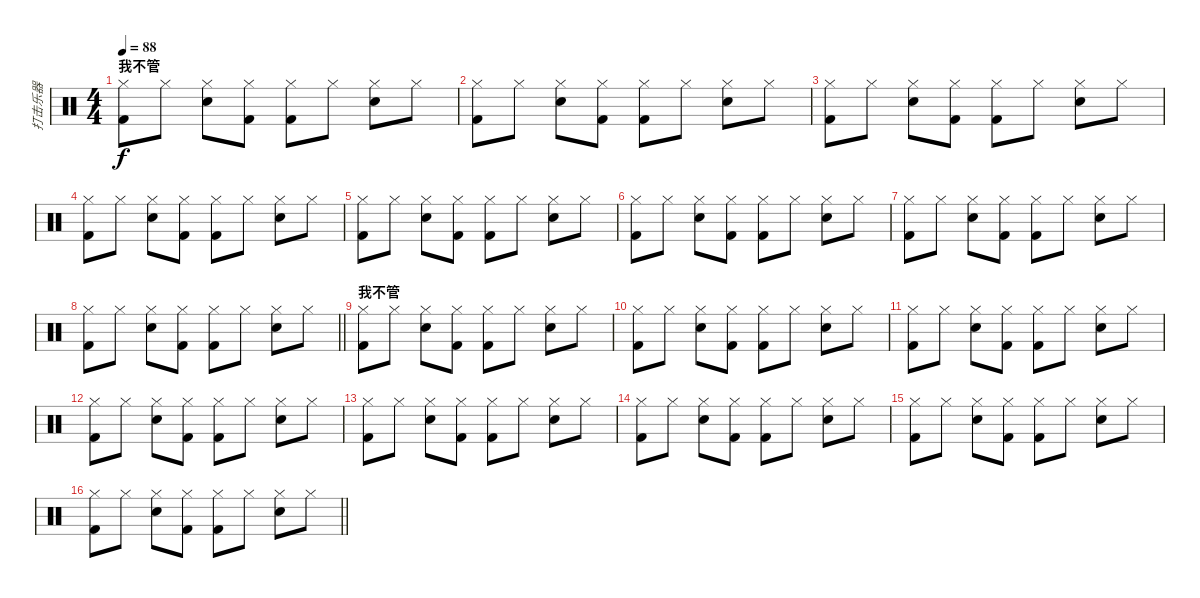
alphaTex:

\track ("打击乐器" "打击乐器") {instrument percussion}
\staff {score}
\articulation defaults
\ts (4 4)
\section ("" "我不管")
\tempo 88
\clef neutral
\ks c
("Hi-Hat (closed)" "Kick (hit) 2").8{dy f} "Hi-Hat (closed)".8 ("Hi-Hat (closed)" "Electric Snare (hit)").8 ("Hi-Hat (closed)" "Kick (hit) 2").8 ("Hi-Hat (closed)" "Kick (hit) 2").8 "Hi-Hat (closed)".8 ("Hi-Hat (closed)" "Electric Snare (hit)").8 "Hi-Hat (closed)".8 |
("Hi-Hat (closed)" "Kick (hit) 2").8 "Hi-Hat (closed)".8 ("Hi-Hat (closed)" "Electric Snare (hit)").8 ("Hi-Hat (closed)" "Kick (hit) 2").8 ("Hi-Hat (closed)" "Kick (hit) 2").8 "Hi-Hat (closed)".8 ("Hi-Hat (closed)" "Electric Snare (hit)").8 "Hi-Hat (closed)".8 |
("Hi-Hat (closed)" "Kick (hit) 2").8 "Hi-Hat (closed)".8 ("Hi-Hat (closed)" "Electric Snare (hit)").8 ("Hi-Hat (closed)" "Kick (hit) 2").8 ("Hi-Hat (closed)" "Kick (hit) 2").8 "Hi-Hat (closed)".8 ("Hi-Hat (closed)" "Electric Snare (hit)").8 "Hi-Hat (closed)".8 |
("Hi-Hat (closed)" "Kick (hit) 2").8 "Hi-Hat (closed)".8 ("Hi-Hat (closed)" "Electric Snare (hit)").8 ("Hi-Hat (closed)" "Kick (hit) 2").8 ("Hi-Hat (closed)" "Kick (hit) 2").8 "Hi-Hat (closed)".8 ("Hi-Hat (closed)" "Electric Snare (hit)").8 "Hi-Hat (closed)".8 |
("Hi-Hat (closed)" "Kick (hit) 2").8 "Hi-Hat (closed)".8 ("Hi-Hat (closed)" "Electric Snare (hit)").8 ("Hi-Hat (closed)" "Kick (hit) 2").8 ("Hi-Hat (closed)" "Kick (hit) 2").8 "Hi-Hat (closed)".8 ("Hi-Hat (closed)" "Electric Snare (hit)").8 "Hi-Hat (closed)".8 |
("Hi-Hat (closed)" "Kick (hit) 2").8 "Hi-Hat (closed)".8 ("Hi-Hat (closed)" "Electric Snare (hit)").8 ("Hi-Hat (closed)" "Kick (hit) 2").8 ("Hi-Hat (closed)" "Kick (hit) 2").8 "Hi-Hat (closed)".8 ("Hi-Hat (closed)" "Electric Snare (hit)").8 "Hi-Hat (closed)".8 |
("Hi-Hat (closed)" "Kick (hit) 2").8 "Hi-Hat (closed)".8 ("Hi-Hat (closed)" "Electric Snare (hit)").8 ("Hi-Hat (closed)" "Kick (hit) 2").8 ("Hi-Hat (closed)" "Kick (hit) 2").8 "Hi-Hat (closed)".8 ("Hi-Hat (closed)" "Electric Snare (hit)").8 "Hi-Hat (closed)".8 |
\barLineRight lightlight
("Hi-Hat (closed)" "Kick (hit) 2").8 "Hi-Hat (closed)".8 ("Hi-Hat (closed)" "Electric Snare (hit)").8 ("Hi-Hat (closed)" "Kick (hit) 2").8 ("Hi-Hat (closed)" "Kick (hit) 2").8 "Hi-Hat (closed)".8 ("Hi-Hat (closed)" "Electric Snare (hit)").8 "Hi-Hat (closed)".8 |
\section ("" "我不管")
("Hi-Hat (closed)" "Kick (hit) 2").8 "Hi-Hat (closed)".8 ("Hi-Hat (closed)" "Electric Snare (hit)").8 ("Hi-Hat (closed)" "Kick (hit) 2").8 ("Hi-Hat (closed)" "Kick (hit) 2").8 "Hi-Hat (closed)".8 ("Hi-Hat (closed)" "Electric Snare (hit)").8 "Hi-Hat (closed)".8 |
("Hi-Hat (closed)" "Kick (hit) 2").8 "Hi-Hat (closed)".8 ("Hi-Hat (closed)" "Electric Snare (hit)").8 ("Hi-Hat (closed)" "Kick (hit) 2").8 ("Hi-Hat (closed)" "Kick (hit) 2").8 "Hi-Hat (closed)".8 ("Hi-Hat (closed)" "Electric Snare (hit)").8 "Hi-Hat (closed)".8 |
("Hi-Hat (closed)" "Kick (hit) 2").8 "Hi-Hat (closed)".8 ("Hi-Hat (closed)" "Electric Snare (hit)").8 ("Hi-Hat (closed)" "Kick (hit) 2").8 ("Hi-Hat (closed)" "Kick (hit) 2").8 "Hi-Hat (closed)".8 ("Hi-Hat (closed)" "Electric Snare (hit)").8 "Hi-Hat (closed)".8 |
("Hi-Hat (closed)" "Kick (hit) 2").8 "Hi-Hat (closed)".8 ("Hi-Hat (closed)" "Electric Snare (hit)").8 ("Hi-Hat (closed)" "Kick (hit) 2").8 ("Hi-Hat (closed)" "Kick (hit) 2").8 "Hi-Hat (closed)".8 ("Hi-Hat (closed)" "Electric Snare (hit)").8 "Hi-Hat (closed)".8 |
("Hi-Hat (closed)" "Kick (hit) 2").8 "Hi-Hat (closed)".8 ("Hi-Hat (closed)" "Electric Snare (hit)").8 ("Hi-Hat (closed)" "Kick (hit) 2").8 ("Hi-Hat (closed)" "Kick (hit) 2").8 "Hi-Hat (closed)".8 ("Hi-Hat (closed)" "Electric Snare (hit)").8 "Hi-Hat (closed)".8 |
("Hi-Hat (closed)" "Kick (hit) 2").8 "Hi-Hat (closed)".8 ("Hi-Hat (closed)" "Electric Snare (hit)").8 ("Hi-Hat (closed)" "Kick (hit) 2").8 ("Hi-Hat (closed)" "Kick (hit) 2").8 "Hi-Hat (closed)".8 ("Hi-Hat (closed)" "Electric Snare (hit)").8 "Hi-Hat (closed)".8 |
("Hi-Hat (closed)" "Kick (hit) 2").8 "Hi-Hat (closed)".8 ("Hi-Hat (closed)" "Electric Snare (hit)").8 ("Hi-Hat (closed)" "Kick (hit) 2").8 ("Hi-Hat (closed)" "Kick (hit) 2").8 "Hi-Hat (closed)".8 ("Hi-Hat (closed)" "Electric Snare (hit)").8 "Hi-Hat (closed)".8 |
\barLineRight lightlight
("Hi-Hat (closed)" "Kick (hit) 2").8 "Hi-Hat (closed)".8 ("Hi-Hat (closed)" "Electric Snare (hit)").8 ("Hi-Hat (closed)" "Kick (hit) 2").8 ("Hi-Hat (closed)" "Kick (hit) 2").8 "Hi-Hat (closed)".8 ("Hi-Hat (closed)" "Electric Snare (hit)").8 "Hi-Hat (closed)".8
